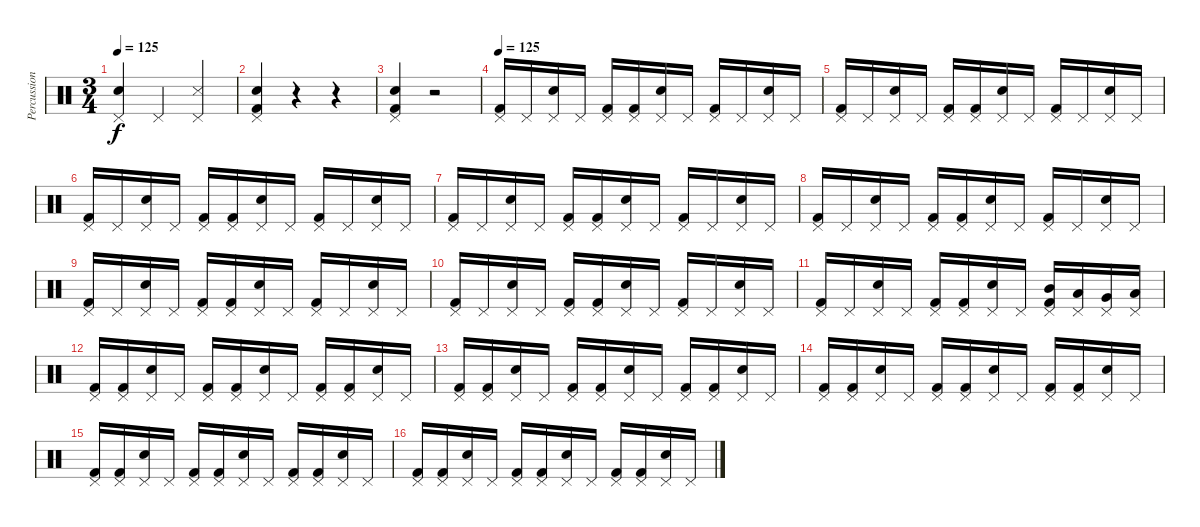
\track ("Percussion" "Percussion") {instrument percussion}
\staff {score}
\articulation defaults
\ts (3 4)
\tempo 125
\clef neutral
\ks c
("Pedal Hi-Hat (hit)" "Snare (hit) 2").4{dy f} "Pedal Hi-Hat (hit)".4 ("Pedal Hi-Hat (hit)" "Snare (side stick) 3").4 |
("Kick (hit) 2" "Pedal Hi-Hat (hit)" "Snare (hit) 2").4 r.4 r.4 |
("Kick (hit) 2" "Pedal Hi-Hat (hit)" "Snare (hit) 2").4 r.2 |
\tempo 125
("Kick (hit) 2" "Pedal Hi-Hat (hit)").16 "Pedal Hi-Hat (hit)".16 ("Pedal Hi-Hat (hit)" "Snare (hit) 2").16 "Pedal Hi-Hat (hit)".16 ("Kick (hit) 2" "Pedal Hi-Hat (hit)").16 ("Kick (hit) 2" "Pedal Hi-Hat (hit)").16 ("Pedal Hi-Hat (hit)" "Snare (hit) 2").16 "Pedal Hi-Hat (hit)".16 ("Kick (hit) 2" "Pedal Hi-Hat (hit)").16 "Pedal Hi-Hat (hit)".16 ("Pedal Hi-Hat (hit)" "Snare (hit) 2").16 "Pedal Hi-Hat (hit)".16 |
("Kick (hit) 2" "Pedal Hi-Hat (hit)").16 "Pedal Hi-Hat (hit)".16 ("Pedal Hi-Hat (hit)" "Snare (hit) 2").16 "Pedal Hi-Hat (hit)".16 ("Kick (hit) 2" "Pedal Hi-Hat (hit)").16 ("Kick (hit) 2" "Pedal Hi-Hat (hit)").16 ("Pedal Hi-Hat (hit)" "Snare (hit) 2").16 "Pedal Hi-Hat (hit)".16 ("Kick (hit) 2" "Pedal Hi-Hat (hit)").16 "Pedal Hi-Hat (hit)".16 ("Pedal Hi-Hat (hit)" "Snare (hit) 2").16 "Pedal Hi-Hat (hit)".16 |
("Kick (hit) 2" "Pedal Hi-Hat (hit)").16 "Pedal Hi-Hat (hit)".16 ("Pedal Hi-Hat (hit)" "Snare (hit) 2").16 "Pedal Hi-Hat (hit)".16 ("Kick (hit) 2" "Pedal Hi-Hat (hit)").16 ("Kick (hit) 2" "Pedal Hi-Hat (hit)").16 ("Pedal Hi-Hat (hit)" "Snare (hit) 2").16 "Pedal Hi-Hat (hit)".16 ("Kick (hit) 2" "Pedal Hi-Hat (hit)").16 "Pedal Hi-Hat (hit)".16 ("Pedal Hi-Hat (hit)" "Snare (hit) 2").16 "Pedal Hi-Hat (hit)".16 |
("Kick (hit) 2" "Pedal Hi-Hat (hit)").16 "Pedal Hi-Hat (hit)".16 ("Pedal Hi-Hat (hit)" "Snare (hit) 2").16 "Pedal Hi-Hat (hit)".16 ("Kick (hit) 2" "Pedal Hi-Hat (hit)").16 ("Kick (hit) 2" "Pedal Hi-Hat (hit)").16 ("Pedal Hi-Hat (hit)" "Snare (hit) 2").16 "Pedal Hi-Hat (hit)".16 ("Kick (hit) 2" "Pedal Hi-Hat (hit)").16 "Pedal Hi-Hat (hit)".16 ("Pedal Hi-Hat (hit)" "Snare (hit) 2").16 "Pedal Hi-Hat (hit)".16 |
("Kick (hit) 2" "Pedal Hi-Hat (hit)").16 "Pedal Hi-Hat (hit)".16 ("Pedal Hi-Hat (hit)" "Snare (hit) 2").16 "Pedal Hi-Hat (hit)".16 ("Kick (hit) 2" "Pedal Hi-Hat (hit)").16 ("Kick (hit) 2" "Pedal Hi-Hat (hit)").16 ("Pedal Hi-Hat (hit)" "Snare (hit) 2").16 "Pedal Hi-Hat (hit)".16 ("Kick (hit) 2" "Pedal Hi-Hat (hit)").16 "Pedal Hi-Hat (hit)".16 ("Pedal Hi-Hat (hit)" "Snare (hit) 2").16 "Pedal Hi-Hat (hit)".16 |
("Kick (hit) 2" "Pedal Hi-Hat (hit)").16 "Pedal Hi-Hat (hit)".16 ("Pedal Hi-Hat (hit)" "Snare (hit) 2").16 "Pedal Hi-Hat (hit)".16 ("Kick (hit) 2" "Pedal Hi-Hat (hit)").16 ("Kick (hit) 2" "Pedal Hi-Hat (hit)").16 ("Pedal Hi-Hat (hit)" "Snare (hit) 2").16 "Pedal Hi-Hat (hit)".16 ("Kick (hit) 2" "Pedal Hi-Hat (hit)").16 "Pedal Hi-Hat (hit)".16 ("Pedal Hi-Hat (hit)" "Snare (hit) 2").16 "Pedal Hi-Hat (hit)".16 |
("Kick (hit) 2" "Pedal Hi-Hat (hit)").16 "Pedal Hi-Hat (hit)".16 ("Pedal Hi-Hat (hit)" "Snare (hit) 2").16 "Pedal Hi-Hat (hit)".16 ("Kick (hit) 2" "Pedal Hi-Hat (hit)").16 ("Kick (hit) 2" "Pedal Hi-Hat (hit)").16 ("Pedal Hi-Hat (hit)" "Snare (hit) 2").16 "Pedal Hi-Hat (hit)".16 ("Kick (hit) 2" "Pedal Hi-Hat (hit)").16 "Pedal Hi-Hat (hit)".16 ("Pedal Hi-Hat (hit)" "Snare (hit) 2").16 "Pedal Hi-Hat (hit)".16 |
("Kick (hit) 2" "Pedal Hi-Hat (hit)").16 "Pedal Hi-Hat (hit)".16 ("Pedal Hi-Hat (hit)" "Snare (hit) 2").16 "Pedal Hi-Hat (hit)".16 ("Kick (hit) 2" "Pedal Hi-Hat (hit)").16 ("Kick (hit) 2" "Pedal Hi-Hat (hit)").16 ("Pedal Hi-Hat (hit)" "Snare (hit) 2").16 "Pedal Hi-Hat (hit)".16 ("Kick (hit) 2" "Pedal Hi-Hat (hit)" "Mid Tom (hit)").16 ("Pedal Hi-Hat (hit)" "Low Tom (hit)").16 ("Pedal Hi-Hat (hit)" "Very Low Tom (hit)").16 ("Pedal Hi-Hat (hit)" "Low Floor Tom (hit)").16 |
("Kick (hit) 2" "Pedal Hi-Hat (hit)").16 ("Kick (hit) 2" "Pedal Hi-Hat (hit)").16 ("Pedal Hi-Hat (hit)" "Snare (hit) 2").16 "Pedal Hi-Hat (hit)".16 ("Kick (hit) 2" "Pedal Hi-Hat (hit)").16 ("Kick (hit) 2" "Pedal Hi-Hat (hit)").16 ("Pedal Hi-Hat (hit)" "Snare (hit) 2").16 "Pedal Hi-Hat (hit)".16 ("Kick (hit) 2" "Pedal Hi-Hat (hit)").16 ("Kick (hit) 2" "Pedal Hi-Hat (hit)").16 ("Pedal Hi-Hat (hit)" "Snare (hit) 2").16 "Pedal Hi-Hat (hit)".16 |
("Kick (hit) 2" "Pedal Hi-Hat (hit)").16 ("Kick (hit) 2" "Pedal Hi-Hat (hit)").16 ("Pedal Hi-Hat (hit)" "Snare (hit) 2").16 "Pedal Hi-Hat (hit)".16 ("Kick (hit) 2" "Pedal Hi-Hat (hit)").16 ("Kick (hit) 2" "Pedal Hi-Hat (hit)").16 ("Pedal Hi-Hat (hit)" "Snare (hit) 2").16 "Pedal Hi-Hat (hit)".16 ("Kick (hit) 2" "Pedal Hi-Hat (hit)").16 ("Kick (hit) 2" "Pedal Hi-Hat (hit)").16 ("Pedal Hi-Hat (hit)" "Snare (hit) 2").16 "Pedal Hi-Hat (hit)".16 |
("Kick (hit) 2" "Pedal Hi-Hat (hit)").16 ("Kick (hit) 2" "Pedal Hi-Hat (hit)").16 ("Pedal Hi-Hat (hit)" "Snare (hit) 2").16 "Pedal Hi-Hat (hit)".16 ("Kick (hit) 2" "Pedal Hi-Hat (hit)").16 ("Kick (hit) 2" "Pedal Hi-Hat (hit)").16 ("Pedal Hi-Hat (hit)" "Snare (hit) 2").16 "Pedal Hi-Hat (hit)".16 ("Kick (hit) 2" "Pedal Hi-Hat (hit)").16 ("Kick (hit) 2" "Pedal Hi-Hat (hit)").16 ("Pedal Hi-Hat (hit)" "Snare (hit) 2").16 "Pedal Hi-Hat (hit)".16 |
("Kick (hit) 2" "Pedal Hi-Hat (hit)").16 ("Kick (hit) 2" "Pedal Hi-Hat (hit)").16 ("Pedal Hi-Hat (hit)" "Snare (hit) 2").16 "Pedal Hi-Hat (hit)".16 ("Kick (hit) 2" "Pedal Hi-Hat (hit)").16 ("Kick (hit) 2" "Pedal Hi-Hat (hit)").16 ("Pedal Hi-Hat (hit)" "Snare (hit) 2").16 "Pedal Hi-Hat (hit)".16 ("Kick (hit) 2" "Pedal Hi-Hat (hit)").16 ("Kick (hit) 2" "Pedal Hi-Hat (hit)").16 ("Pedal Hi-Hat (hit)" "Snare (hit) 2").16 "Pedal Hi-Hat (hit)".16 |
("Kick (hit) 2" "Pedal Hi-Hat (hit)").16 ("Kick (hit) 2" "Pedal Hi-Hat (hit)").16 ("Pedal Hi-Hat (hit)" "Snare (hit) 2").16 "Pedal Hi-Hat (hit)".16 ("Kick (hit) 2" "Pedal Hi-Hat (hit)").16 ("Kick (hit) 2" "Pedal Hi-Hat (hit)").16 ("Pedal Hi-Hat (hit)" "Snare (hit) 2").16 "Pedal Hi-Hat (hit)".16 ("Kick (hit) 2" "Pedal Hi-Hat (hit)").16 ("Kick (hit) 2" "Pedal Hi-Hat (hit)").16 ("Pedal Hi-Hat (hit)" "Snare (hit) 2").16 "Pedal Hi-Hat (hit)".16
